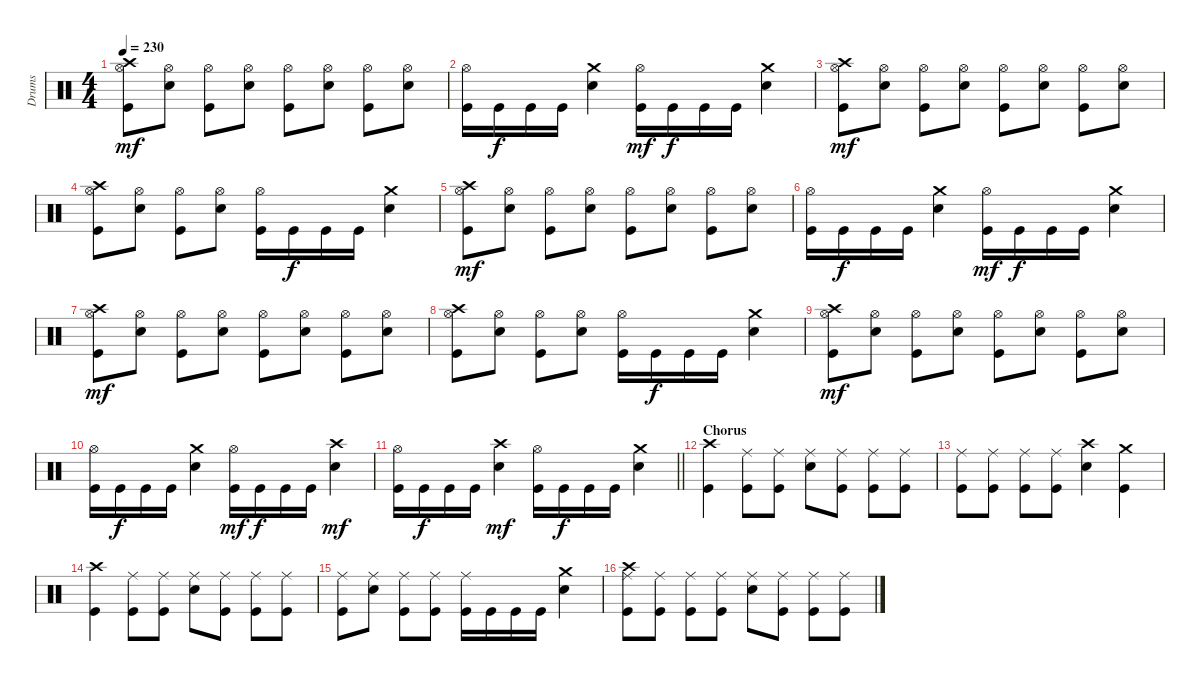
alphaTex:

\track ("Drums" "Drums") {instrument percussion}
\staff {score}
\articulation defaults
\ts (4 4)
\tempo 230
\clef neutral
\ks c
("Crash high (hit)" "Hi-Hat (open)" "Kick (hit)").8{dy mf} ("Hi-Hat (open)" "Electric Snare (hit)").8 ("Hi-Hat (open)" "Kick (hit)").8 ("Hi-Hat (open)" "Electric Snare (hit)").8 ("Hi-Hat (open)" "Kick (hit)").8 ("Hi-Hat (open)" "Electric Snare (hit)").8 ("Hi-Hat (open)" "Kick (hit)").8 ("Hi-Hat (open)" "Electric Snare (hit)").8 |
("Hi-Hat (open)" "Kick (hit)").16 "Kick (hit)".16{dy f} "Kick (hit)".16 "Kick (hit)".16 ("Crash medium (hit)" "Electric Snare (hit)").4 ("Hi-Hat (open)" "Kick (hit)").16{dy mf} "Kick (hit)".16{dy f} "Kick (hit)".16 "Kick (hit)".16 ("Crash medium (hit)" "Electric Snare (hit)").4 |
("Crash high (hit)" "Hi-Hat (open)" "Kick (hit)").8{dy mf} ("Hi-Hat (open)" "Electric Snare (hit)").8 ("Hi-Hat (open)" "Kick (hit)").8 ("Hi-Hat (open)" "Electric Snare (hit)").8 ("Hi-Hat (open)" "Kick (hit)").8 ("Hi-Hat (open)" "Electric Snare (hit)").8 ("Hi-Hat (open)" "Kick (hit)").8 ("Hi-Hat (open)" "Electric Snare (hit)").8 |
("Crash high (hit)" "Hi-Hat (open)" "Kick (hit)").8 ("Hi-Hat (open)" "Electric Snare (hit)").8 ("Hi-Hat (open)" "Kick (hit)").8 ("Hi-Hat (open)" "Electric Snare (hit)").8 ("Hi-Hat (open)" "Kick (hit)").16 "Kick (hit)".16{dy f} "Kick (hit)".16 "Kick (hit)".16 ("Crash medium (hit)" "Electric Snare (hit)").4 |
("Crash high (hit)" "Hi-Hat (open)" "Kick (hit)").8{dy mf} ("Hi-Hat (open)" "Electric Snare (hit)").8 ("Hi-Hat (open)" "Kick (hit)").8 ("Hi-Hat (open)" "Electric Snare (hit)").8 ("Hi-Hat (open)" "Kick (hit)").8 ("Hi-Hat (open)" "Electric Snare (hit)").8 ("Hi-Hat (open)" "Kick (hit)").8 ("Hi-Hat (open)" "Electric Snare (hit)").8 |
("Hi-Hat (open)" "Kick (hit)").16 "Kick (hit)".16{dy f} "Kick (hit)".16 "Kick (hit)".16 ("Crash medium (hit)" "Electric Snare (hit)").4 ("Hi-Hat (open)" "Kick (hit)").16{dy mf} "Kick (hit)".16{dy f} "Kick (hit)".16 "Kick (hit)".16 ("Crash medium (hit)" "Electric Snare (hit)").4 |
("Crash high (hit)" "Hi-Hat (open)" "Kick (hit)").8{dy mf} ("Hi-Hat (open)" "Electric Snare (hit)").8 ("Hi-Hat (open)" "Kick (hit)").8 ("Hi-Hat (open)" "Electric Snare (hit)").8 ("Hi-Hat (open)" "Kick (hit)").8 ("Hi-Hat (open)" "Electric Snare (hit)").8 ("Hi-Hat (open)" "Kick (hit)").8 ("Hi-Hat (open)" "Electric Snare (hit)").8 |
("Crash high (hit)" "Hi-Hat (open)" "Kick (hit)").8 ("Hi-Hat (open)" "Electric Snare (hit)").8 ("Hi-Hat (open)" "Kick (hit)").8 ("Hi-Hat (open)" "Electric Snare (hit)").8 ("Hi-Hat (open)" "Kick (hit)").16 "Kick (hit)".16{dy f} "Kick (hit)".16 "Kick (hit)".16 ("Crash medium (hit)" "Electric Snare (hit)").4 |
("Crash high (hit)" "Hi-Hat (open)" "Kick (hit)").8{dy mf} ("Hi-Hat (open)" "Electric Snare (hit)").8 ("Hi-Hat (open)" "Kick (hit)").8 ("Hi-Hat (open)" "Electric Snare (hit)").8 ("Hi-Hat (open)" "Kick (hit)").8 ("Hi-Hat (open)" "Electric Snare (hit)").8 ("Hi-Hat (open)" "Kick (hit)").8 ("Hi-Hat (open)" "Electric Snare (hit)").8 |
("Hi-Hat (open)" "Kick (hit)").16 "Kick (hit)".16{dy f} "Kick (hit)".16 "Kick (hit)".16 ("Crash medium (hit)" "Electric Snare (hit)").4 ("Hi-Hat (open)" "Kick (hit)").16{dy mf} "Kick (hit)".16{dy f} "Kick (hit)".16 "Kick (hit)".16 ("Crash high (hit)" "Electric Snare (hit)").4{dy mf} |
\barLineRight lightlight
("Hi-Hat (open)" "Kick (hit)").16 "Kick (hit)".16{dy f} "Kick (hit)".16 "Kick (hit)".16 ("Crash high (hit)" "Electric Snare (hit)").4{dy mf} ("Hi-Hat (open)" "Kick (hit)").16 "Kick (hit)".16{dy f} "Kick (hit)".16 "Kick (hit)".16 ("Crash medium (hit)" "Electric Snare (hit)").4 |
\section ("" "Chorus")
("Crash high (hit)" "Kick (hit)").4 ("Ride (middle)" "Kick (hit)").8 ("Ride (middle)" "Kick (hit)").8 ("Ride (middle)" "Electric Snare (hit)").8 ("Ride (middle)" "Kick (hit)").8 ("Ride (middle)" "Kick (hit)").8 ("Ride (middle)" "Kick (hit)").8 |
("Ride (middle)" "Kick (hit)").8 ("Ride (middle)" "Kick (hit)").8 ("Ride (middle)" "Kick (hit)").8 ("Ride (middle)" "Kick (hit)").8 ("Crash high (hit)" "Electric Snare (hit)").4 ("Crash medium (hit)" "Kick (hit)").4 |
("Crash high (hit)" "Kick (hit)").4 ("Ride (middle)" "Kick (hit)").8 ("Ride (middle)" "Kick (hit)").8 ("Ride (middle)" "Electric Snare (hit)").8 ("Ride (middle)" "Kick (hit)").8 ("Ride (middle)" "Kick (hit)").8 ("Ride (middle)" "Kick (hit)").8 |
("Ride (middle)" "Kick (hit)").8 ("Ride (middle)" "Electric Snare (hit)").8 ("Ride (middle)" "Kick (hit)").8 ("Ride (middle)" "Kick (hit)").8 ("Ride (middle)" "Kick (hit)").16 "Kick (hit)".16 "Kick (hit)".16 "Kick (hit)".16 ("Crash medium (hit)" "Electric Snare (hit)").4 |
("Crash high (hit)" "Ride (middle)" "Kick (hit)").8 ("Ride (middle)" "Kick (hit)").8 ("Ride (middle)" "Kick (hit)").8 ("Ride (middle)" "Kick (hit)").8 ("Ride (middle)" "Electric Snare (hit)").8 ("Ride (middle)" "Kick (hit)").8 ("Ride (middle)" "Kick (hit)").8 ("Ride (middle)" "Kick (hit)").8
